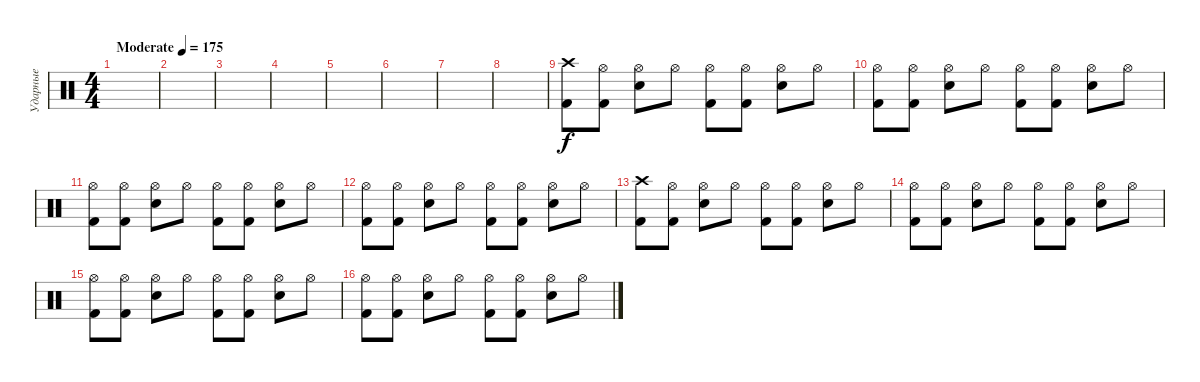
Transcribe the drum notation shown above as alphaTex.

\track ("Ударные" "Ударные") {instrument percussion}
\staff {score}
\articulation defaults
\ts (4 4)
\tempo (175 "Moderate")
\clef neutral
\ks c
|
|
|
|
|
|
|
|
("Crash high (hit)" "Kick (hit) 2").8 ("Hi-Hat (open)" "Kick (hit) 2").8 ("Hi-Hat (open)" "Electric Snare (hit)").8 "Hi-Hat (open)".8 ("Hi-Hat (open)" "Kick (hit) 2").8 ("Hi-Hat (open)" "Kick (hit) 2").8 ("Hi-Hat (open)" "Electric Snare (hit)").8 "Hi-Hat (open)".8 |
("Hi-Hat (open)" "Kick (hit) 2").8 ("Hi-Hat (open)" "Kick (hit) 2").8 ("Hi-Hat (open)" "Electric Snare (hit)").8 "Hi-Hat (open)".8 ("Hi-Hat (open)" "Kick (hit) 2").8 ("Hi-Hat (open)" "Kick (hit) 2").8 ("Hi-Hat (open)" "Electric Snare (hit)").8 "Hi-Hat (open)".8 |
("Hi-Hat (open)" "Kick (hit) 2").8 ("Hi-Hat (open)" "Kick (hit) 2").8 ("Hi-Hat (open)" "Electric Snare (hit)").8 "Hi-Hat (open)".8 ("Hi-Hat (open)" "Kick (hit) 2").8 ("Hi-Hat (open)" "Kick (hit) 2").8 ("Hi-Hat (open)" "Electric Snare (hit)").8 "Hi-Hat (open)".8 |
("Hi-Hat (open)" "Kick (hit) 2").8 ("Hi-Hat (open)" "Kick (hit) 2").8 ("Hi-Hat (open)" "Electric Snare (hit)").8 "Hi-Hat (open)".8 ("Hi-Hat (open)" "Kick (hit) 2").8 ("Hi-Hat (open)" "Kick (hit) 2").8 ("Hi-Hat (open)" "Electric Snare (hit)").8 "Hi-Hat (open)".8 |
("Crash high (hit)" "Kick (hit) 2").8 ("Hi-Hat (open)" "Kick (hit) 2").8 ("Hi-Hat (open)" "Electric Snare (hit)").8 "Hi-Hat (open)".8 ("Hi-Hat (open)" "Kick (hit) 2").8 ("Hi-Hat (open)" "Kick (hit) 2").8 ("Hi-Hat (open)" "Electric Snare (hit)").8 "Hi-Hat (open)".8 |
("Hi-Hat (open)" "Kick (hit) 2").8 ("Hi-Hat (open)" "Kick (hit) 2").8 ("Hi-Hat (open)" "Electric Snare (hit)").8 "Hi-Hat (open)".8 ("Hi-Hat (open)" "Kick (hit) 2").8 ("Hi-Hat (open)" "Kick (hit) 2").8 ("Hi-Hat (open)" "Electric Snare (hit)").8 "Hi-Hat (open)".8 |
("Hi-Hat (open)" "Kick (hit) 2").8 ("Hi-Hat (open)" "Kick (hit) 2").8 ("Hi-Hat (open)" "Electric Snare (hit)").8 "Hi-Hat (open)".8 ("Hi-Hat (open)" "Kick (hit) 2").8 ("Hi-Hat (open)" "Kick (hit) 2").8 ("Hi-Hat (open)" "Electric Snare (hit)").8 "Hi-Hat (open)".8 |
("Hi-Hat (open)" "Kick (hit) 2").8 ("Hi-Hat (open)" "Kick (hit) 2").8 ("Hi-Hat (open)" "Electric Snare (hit)").8 "Hi-Hat (open)".8 ("Hi-Hat (open)" "Kick (hit) 2").8 ("Hi-Hat (open)" "Kick (hit) 2").8 ("Hi-Hat (open)" "Electric Snare (hit)").8 "Hi-Hat (open)".8
